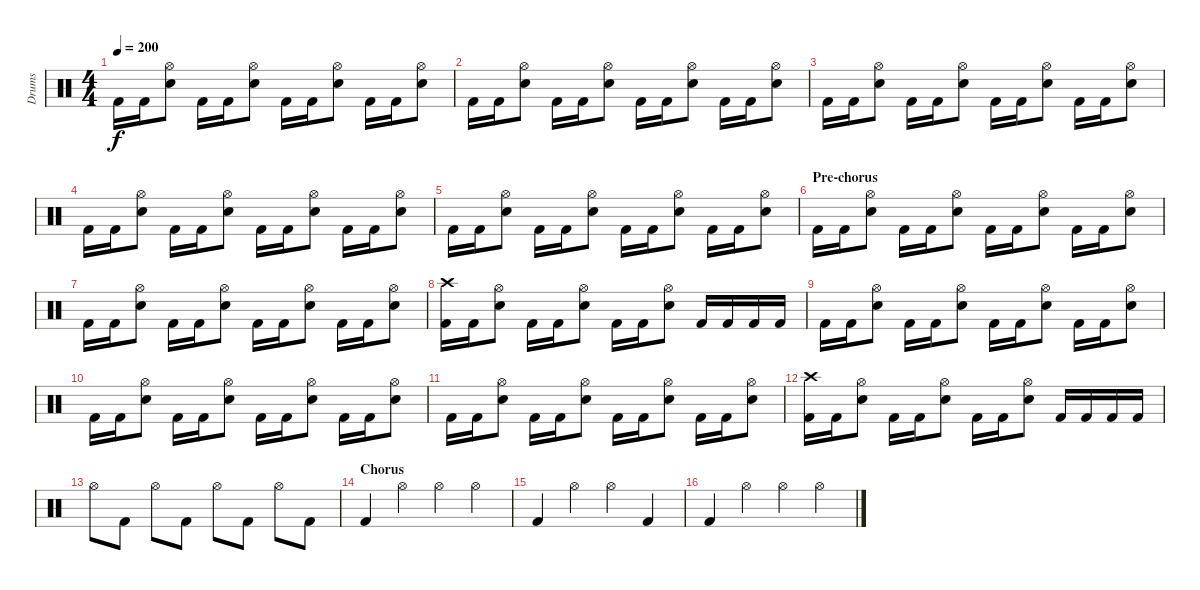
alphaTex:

\track ("Drums" "Drums") {instrument percussion}
\staff {score}
\articulation defaults
\ts (4 4)
\tempo 200
\clef neutral
\ks c "Kick (hit) 2".16{dy f} "Kick (hit) 2".16
("Hi-Hat (open)" "Snare (hit) 2").8 "Kick (hit) 2".16 "Kick (hit) 2".16 ("Hi-Hat (open)" "Snare (hit) 2").8 "Kick (hit) 2".16 "Kick (hit) 2".16 ("Hi-Hat (open)" "Snare (hit) 2").8 "Kick (hit) 2".16 "Kick (hit) 2".16 ("Hi-Hat (open)" "Snare (hit) 2").8 |
"Kick (hit) 2".16 "Kick (hit) 2".16 ("Hi-Hat (open)" "Snare (hit) 2").8 "Kick (hit) 2".16 "Kick (hit) 2".16 ("Hi-Hat (open)" "Snare (hit) 2").8 "Kick (hit) 2".16 "Kick (hit) 2".16 ("Hi-Hat (open)" "Snare (hit) 2").8 "Kick (hit) 2".16 "Kick (hit) 2".16 ("Hi-Hat (open)" "Snare (hit) 2").8 |
"Kick (hit) 2".16 "Kick (hit) 2".16 ("Hi-Hat (open)" "Snare (hit) 2").8 "Kick (hit) 2".16 "Kick (hit) 2".16 ("Hi-Hat (open)" "Snare (hit) 2").8 "Kick (hit) 2".16 "Kick (hit) 2".16 ("Hi-Hat (open)" "Snare (hit) 2").8 "Kick (hit) 2".16 "Kick (hit) 2".16 ("Hi-Hat (open)" "Snare (hit) 2").8 |
"Kick (hit) 2".16 "Kick (hit) 2".16 ("Hi-Hat (open)" "Snare (hit) 2").8 "Kick (hit) 2".16 "Kick (hit) 2".16 ("Hi-Hat (open)" "Snare (hit) 2").8 "Kick (hit) 2".16 "Kick (hit) 2".16 ("Hi-Hat (open)" "Snare (hit) 2").8 "Kick (hit) 2".16 "Kick (hit) 2".16 ("Hi-Hat (open)" "Snare (hit) 2").8 |
"Kick (hit) 2".16 "Kick (hit) 2".16 ("Hi-Hat (open)" "Snare (hit) 2").8 "Kick (hit) 2".16 "Kick (hit) 2".16 ("Hi-Hat (open)" "Snare (hit) 2").8 "Kick (hit) 2".16 "Kick (hit) 2".16 ("Hi-Hat (open)" "Snare (hit) 2").8 "Kick (hit) 2".16 "Kick (hit) 2".16 ("Hi-Hat (open)" "Snare (hit) 2").8 |
\section ("" "Pre-chorus")
"Kick (hit) 2".16 "Kick (hit) 2".16 ("Hi-Hat (open)" "Snare (hit) 2").8 "Kick (hit) 2".16 "Kick (hit) 2".16 ("Hi-Hat (open)" "Snare (hit) 2").8 "Kick (hit) 2".16 "Kick (hit) 2".16 ("Hi-Hat (open)" "Snare (hit) 2").8 "Kick (hit) 2".16 "Kick (hit) 2".16 ("Hi-Hat (open)" "Snare (hit) 2").8 |
"Kick (hit) 2".16 "Kick (hit) 2".16 ("Hi-Hat (open)" "Snare (hit) 2").8 "Kick (hit) 2".16 "Kick (hit) 2".16 ("Hi-Hat (open)" "Snare (hit) 2").8 "Kick (hit) 2".16 "Kick (hit) 2".16 ("Hi-Hat (open)" "Snare (hit) 2").8 "Kick (hit) 2".16 "Kick (hit) 2".16 ("Hi-Hat (open)" "Snare (hit) 2").8 |
("Crash high (hit)" "Kick (hit) 2").16 "Kick (hit) 2".16 ("Hi-Hat (open)" "Snare (hit) 2").8 "Kick (hit) 2".16 "Kick (hit) 2".16 ("Hi-Hat (open)" "Snare (hit) 2").8 "Kick (hit) 2".16 "Kick (hit) 2".16 ("Hi-Hat (open)" "Snare (hit) 2").8 "Kick (hit) 2".16 "Kick (hit) 2".16 "Kick (hit) 2".16 "Kick (hit) 2".16 |
"Kick (hit) 2".16 "Kick (hit) 2".16 ("Hi-Hat (open)" "Snare (hit) 2").8 "Kick (hit) 2".16 "Kick (hit) 2".16 ("Hi-Hat (open)" "Snare (hit) 2").8 "Kick (hit) 2".16 "Kick (hit) 2".16 ("Hi-Hat (open)" "Snare (hit) 2").8 "Kick (hit) 2".16 "Kick (hit) 2".16 ("Hi-Hat (open)" "Snare (hit) 2").8 |
"Kick (hit) 2".16 "Kick (hit) 2".16 ("Hi-Hat (open)" "Snare (hit) 2").8 "Kick (hit) 2".16 "Kick (hit) 2".16 ("Hi-Hat (open)" "Snare (hit) 2").8 "Kick (hit) 2".16 "Kick (hit) 2".16 ("Hi-Hat (open)" "Snare (hit) 2").8 "Kick (hit) 2".16 "Kick (hit) 2".16 ("Hi-Hat (open)" "Snare (hit) 2").8 |
"Kick (hit) 2".16 "Kick (hit) 2".16 ("Hi-Hat (open)" "Snare (hit) 2").8 "Kick (hit) 2".16 "Kick (hit) 2".16 ("Hi-Hat (open)" "Snare (hit) 2").8 "Kick (hit) 2".16 "Kick (hit) 2".16 ("Hi-Hat (open)" "Snare (hit) 2").8 "Kick (hit) 2".16 "Kick (hit) 2".16 ("Hi-Hat (open)" "Snare (hit) 2").8 |
("Crash high (hit)" "Kick (hit) 2").16 "Kick (hit) 2".16 ("Hi-Hat (open)" "Snare (hit) 2").8 "Kick (hit) 2".16 "Kick (hit) 2".16 ("Hi-Hat (open)" "Snare (hit) 2").8 "Kick (hit) 2".16 "Kick (hit) 2".16 ("Hi-Hat (open)" "Snare (hit) 2").8 "Kick (hit) 2".16 "Kick (hit) 2".16 "Kick (hit) 2".16 "Kick (hit) 2".16 |
"Hi-Hat (open)".8 "Kick (hit) 2".8 "Hi-Hat (open)".8 "Kick (hit) 2".8 "Hi-Hat (open)".8 "Kick (hit) 2".8 "Hi-Hat (open)".8 "Kick (hit) 2".8 |
\section ("" "Chorus")
"Kick (hit) 2".4 "Hi-Hat (open)".4 "Hi-Hat (open)".4 "Hi-Hat (open)".4 |
"Kick (hit) 2".4 "Hi-Hat (open)".4 "Hi-Hat (open)".4 "Kick (hit) 2".4 |
"Kick (hit) 2".4 "Hi-Hat (open)".4 "Hi-Hat (open)".4 "Hi-Hat (open)".4
